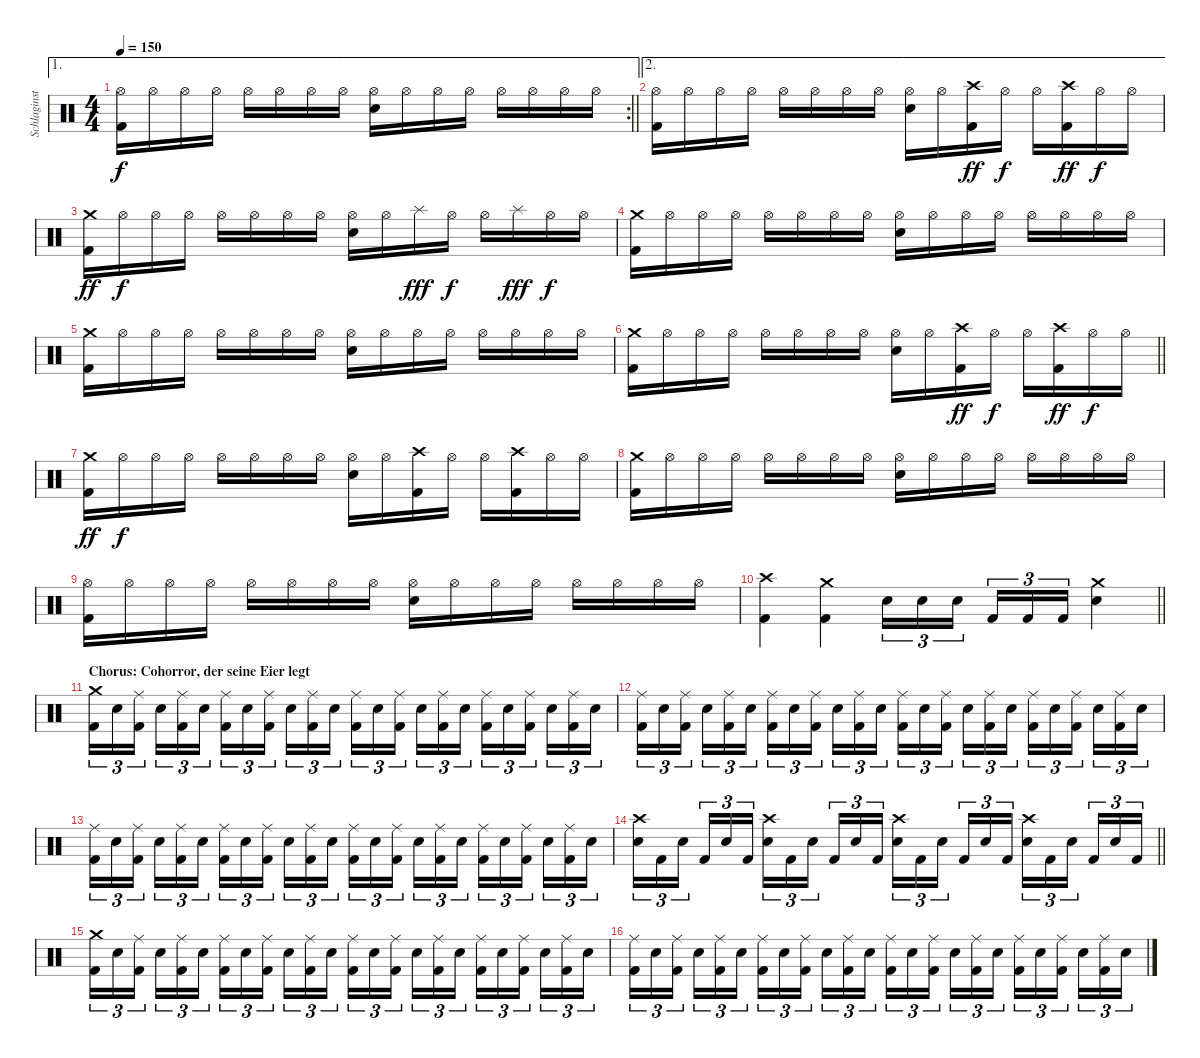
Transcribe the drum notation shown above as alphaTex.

\track ("Schlaginstrumente - Auswahl" "Schlaginst") {instrument percussion}
\staff {score}
\articulation defaults
\ae 1
\rc 2
\ts (4 4)
\tempo 150
\clef neutral
\barLineRight lightlight
\ks c
("Hi-Hat (open)" "Kick (hit) 2").16{dy f} "Hi-Hat (open)".16 "Hi-Hat (open)".16 "Hi-Hat (open)".16 "Hi-Hat (open)".16 "Hi-Hat (open)".16 "Hi-Hat (open)".16 "Hi-Hat (open)".16 ("Hi-Hat (open)" "Electric Snare (hit)").16 "Hi-Hat (open)".16 "Hi-Hat (open)".16 "Hi-Hat (open)".16 "Hi-Hat (open)".16 "Hi-Hat (open)".16 "Hi-Hat (open)".16 "Hi-Hat (open)".16 |
\ae 2
("Hi-Hat (open)" "Kick (hit) 2").16 "Hi-Hat (open)".16 "Hi-Hat (open)".16 "Hi-Hat (open)".16 "Hi-Hat (open)".16 "Hi-Hat (open)".16 "Hi-Hat (open)".16 "Hi-Hat (open)".16 ("Hi-Hat (open)" "Electric Snare (hit)").16 "Hi-Hat (open)".16 ("Crash high (hit)" "Kick (hit) 2").16{dy ff} "Hi-Hat (open)".16{dy f} "Hi-Hat (open)".16 ("Crash high (hit)" "Kick (hit) 2").16{dy ff} "Hi-Hat (open)".16{dy f} "Hi-Hat (open)".16 |
("Crash medium (hit)" "Kick (hit) 2").16{dy ff} "Hi-Hat (open)".16{dy f} "Hi-Hat (open)".16 "Hi-Hat (open)".16 "Hi-Hat (open)".16 "Hi-Hat (open)".16 "Hi-Hat (open)".16 "Hi-Hat (open)".16 ("Hi-Hat (open)" "Electric Snare (hit)").16 "Hi-Hat (open)".16 "Splash (hit)".16{dy fff} "Hi-Hat (open)".16{dy f} "Hi-Hat (open)".16 "Splash (hit)".16{dy fff} "Hi-Hat (open)".16{dy f} "Hi-Hat (open)".16 |
("Crash medium (hit)" "Kick (hit) 2").16 "Hi-Hat (open)".16 "Hi-Hat (open)".16 "Hi-Hat (open)".16 "Hi-Hat (open)".16 "Hi-Hat (open)".16 "Hi-Hat (open)".16 "Hi-Hat (open)".16 ("Hi-Hat (open)" "Electric Snare (hit)").16 "Hi-Hat (open)".16 "Hi-Hat (open)".16 "Hi-Hat (open)".16 "Hi-Hat (open)".16 "Hi-Hat (open)".16 "Hi-Hat (open)".16 "Hi-Hat (open)".16 |
("Crash medium (hit)" "Kick (hit) 2").16 "Hi-Hat (open)".16 "Hi-Hat (open)".16 "Hi-Hat (open)".16 "Hi-Hat (open)".16 "Hi-Hat (open)".16 "Hi-Hat (open)".16 "Hi-Hat (open)".16 ("Hi-Hat (open)" "Electric Snare (hit)").16 "Hi-Hat (open)".16 "Hi-Hat (open)".16 "Hi-Hat (open)".16 "Hi-Hat (open)".16 "Hi-Hat (open)".16 "Hi-Hat (open)".16 "Hi-Hat (open)".16 |
\barLineRight lightlight
("Crash medium (hit)" "Kick (hit) 2").16 "Hi-Hat (open)".16 "Hi-Hat (open)".16 "Hi-Hat (open)".16 "Hi-Hat (open)".16 "Hi-Hat (open)".16 "Hi-Hat (open)".16 "Hi-Hat (open)".16 ("Hi-Hat (open)" "Electric Snare (hit)").16 "Hi-Hat (open)".16 ("Crash high (hit)" "Kick (hit) 2").16{dy ff} "Hi-Hat (open)".16{dy f} "Hi-Hat (open)".16 ("Crash high (hit)" "Kick (hit) 2").16{dy ff} "Hi-Hat (open)".16{dy f} "Hi-Hat (open)".16 |
("Crash medium (hit)" "Kick (hit) 2").16{dy ff} "Hi-Hat (open)".16{dy f} "Hi-Hat (open)".16 "Hi-Hat (open)".16 "Hi-Hat (open)".16 "Hi-Hat (open)".16 "Hi-Hat (open)".16 "Hi-Hat (open)".16 ("Hi-Hat (open)" "Electric Snare (hit)").16 "Hi-Hat (open)".16 ("Crash high (hit)" "Kick (hit) 2").16 "Hi-Hat (open)".16 "Hi-Hat (open)".16 ("Crash high (hit)" "Kick (hit) 2").16 "Hi-Hat (open)".16 "Hi-Hat (open)".16 |
("Crash medium (hit)" "Kick (hit) 2").16 "Hi-Hat (open)".16 "Hi-Hat (open)".16 "Hi-Hat (open)".16 "Hi-Hat (open)".16 "Hi-Hat (open)".16 "Hi-Hat (open)".16 "Hi-Hat (open)".16 ("Hi-Hat (open)" "Electric Snare (hit)").16 "Hi-Hat (open)".16 "Hi-Hat (open)".16 "Hi-Hat (open)".16 "Hi-Hat (open)".16 "Hi-Hat (open)".16 "Hi-Hat (open)".16 "Hi-Hat (open)".16 |
("Hi-Hat (open)" "Kick (hit) 2").16 "Hi-Hat (open)".16 "Hi-Hat (open)".16 "Hi-Hat (open)".16 "Hi-Hat (open)".16 "Hi-Hat (open)".16 "Hi-Hat (open)".16 "Hi-Hat (open)".16 ("Hi-Hat (open)" "Electric Snare (hit)").16 "Hi-Hat (open)".16 "Hi-Hat (open)".16 "Hi-Hat (open)".16 "Hi-Hat (open)".16 "Hi-Hat (open)".16 "Hi-Hat (open)".16 "Hi-Hat (open)".16 |
\barLineRight lightlight
("Crash high (hit)" "Kick (hit) 2").4 ("Crash medium (hit)" "Kick (hit) 2").4 "Electric Snare (hit)".16{tu (3 2)} "Electric Snare (hit)".16{tu (3 2)} "Electric Snare (hit)".16{tu (3 2) beam splitsecondary} "Kick (hit) 2".16{tu (3 2)} "Kick (hit) 2".16{tu (3 2)} "Kick (hit) 2".16{tu (3 2)} ("Crash medium (hit)" "Electric Snare (hit)").4 |
\section ("" "Chorus: Cohorror, der seine Eier legt")
("Crash medium (hit)" "Kick (hit) 2").16{tu (3 2)} "Electric Snare (hit)".16{tu (3 2)} ("Ride (middle)" "Kick (hit) 2").16{tu (3 2) beam splitsecondary} "Electric Snare (hit)".16{tu (3 2)} ("Ride (middle)" "Kick (hit) 2").16{tu (3 2)} "Electric Snare (hit)".16{tu (3 2)} ("Ride (middle)" "Kick (hit) 2").16{tu (3 2)} "Electric Snare (hit)".16{tu (3 2)} ("Ride (middle)" "Kick (hit) 2").16{tu (3 2) beam splitsecondary} "Electric Snare (hit)".16{tu (3 2)} ("Ride (middle)" "Kick (hit) 2").16{tu (3 2)} "Electric Snare (hit)".16{tu (3 2)} ("Ride (middle)" "Kick (hit) 2").16{tu (3 2)} "Electric Snare (hit)".16{tu (3 2)} ("Ride (middle)" "Kick (hit) 2").16{tu (3 2) beam splitsecondary} "Electric Snare (hit)".16{tu (3 2)} ("Ride (middle)" "Kick (hit) 2").16{tu (3 2)} "Electric Snare (hit)".16{tu (3 2)} ("Ride (middle)" "Kick (hit) 2").16{tu (3 2)} "Electric Snare (hit)".16{tu (3 2)} ("Ride (middle)" "Kick (hit) 2").16{tu (3 2) beam splitsecondary} "Electric Snare (hit)".16{tu (3 2)} ("Ride (middle)" "Kick (hit) 2").16{tu (3 2)} "Electric Snare (hit)".16{tu (3 2)} |
("Ride (middle)" "Kick (hit) 2").16{tu (3 2)} "Electric Snare (hit)".16{tu (3 2)} ("Ride (middle)" "Kick (hit) 2").16{tu (3 2) beam splitsecondary} "Electric Snare (hit)".16{tu (3 2)} ("Ride (middle)" "Kick (hit) 2").16{tu (3 2)} "Electric Snare (hit)".16{tu (3 2)} ("Ride (middle)" "Kick (hit) 2").16{tu (3 2)} "Electric Snare (hit)".16{tu (3 2)} ("Ride (middle)" "Kick (hit) 2").16{tu (3 2) beam splitsecondary} "Electric Snare (hit)".16{tu (3 2)} ("Ride (middle)" "Kick (hit) 2").16{tu (3 2)} "Electric Snare (hit)".16{tu (3 2)} ("Ride (middle)" "Kick (hit) 2").16{tu (3 2)} "Electric Snare (hit)".16{tu (3 2)} ("Ride (middle)" "Kick (hit) 2").16{tu (3 2) beam splitsecondary} "Electric Snare (hit)".16{tu (3 2)} ("Ride (middle)" "Kick (hit) 2").16{tu (3 2)} "Electric Snare (hit)".16{tu (3 2)} ("Ride (middle)" "Kick (hit) 2").16{tu (3 2)} "Electric Snare (hit)".16{tu (3 2)} ("Ride (middle)" "Kick (hit) 2").16{tu (3 2) beam splitsecondary} "Electric Snare (hit)".16{tu (3 2)} ("Ride (middle)" "Kick (hit) 2").16{tu (3 2)} "Electric Snare (hit)".16{tu (3 2)} |
("Ride (middle)" "Kick (hit) 2").16{tu (3 2)} "Electric Snare (hit)".16{tu (3 2)} ("Ride (middle)" "Kick (hit) 2").16{tu (3 2) beam splitsecondary} "Electric Snare (hit)".16{tu (3 2)} ("Ride (middle)" "Kick (hit) 2").16{tu (3 2)} "Electric Snare (hit)".16{tu (3 2)} ("Ride (middle)" "Kick (hit) 2").16{tu (3 2)} "Electric Snare (hit)".16{tu (3 2)} ("Ride (middle)" "Kick (hit) 2").16{tu (3 2) beam splitsecondary} "Electric Snare (hit)".16{tu (3 2)} ("Ride (middle)" "Kick (hit) 2").16{tu (3 2)} "Electric Snare (hit)".16{tu (3 2)} ("Ride (middle)" "Kick (hit) 2").16{tu (3 2)} "Electric Snare (hit)".16{tu (3 2)} ("Ride (middle)" "Kick (hit) 2").16{tu (3 2) beam splitsecondary} "Electric Snare (hit)".16{tu (3 2)} ("Ride (middle)" "Kick (hit) 2").16{tu (3 2)} "Electric Snare (hit)".16{tu (3 2)} ("Ride (middle)" "Kick (hit) 2").16{tu (3 2)} "Electric Snare (hit)".16{tu (3 2)} ("Ride (middle)" "Kick (hit) 2").16{tu (3 2) beam splitsecondary} "Electric Snare (hit)".16{tu (3 2)} ("Ride (middle)" "Kick (hit) 2").16{tu (3 2)} "Electric Snare (hit)".16{tu (3 2)} |
\barLineRight lightlight
("Crash high (hit)" "Electric Snare (hit)").16{tu (3 2)} "Kick (hit) 2".16{tu (3 2)} "Electric Snare (hit)".16{tu (3 2) beam splitsecondary} "Kick (hit) 2".16{tu (3 2)} "Electric Snare (hit)".16{tu (3 2)} "Kick (hit) 2".16{tu (3 2)} ("Crash high (hit)" "Electric Snare (hit)").16{tu (3 2)} "Kick (hit) 2".16{tu (3 2)} "Electric Snare (hit)".16{tu (3 2) beam splitsecondary} "Kick (hit) 2".16{tu (3 2)} "Electric Snare (hit)".16{tu (3 2)} "Kick (hit) 2".16{tu (3 2)} ("Crash high (hit)" "Electric Snare (hit)").16{tu (3 2)} "Kick (hit) 2".16{tu (3 2)} "Electric Snare (hit)".16{tu (3 2) beam splitsecondary} "Kick (hit) 2".16{tu (3 2)} "Electric Snare (hit)".16{tu (3 2)} "Kick (hit) 2".16{tu (3 2)} ("Crash high (hit)" "Electric Snare (hit)").16{tu (3 2)} "Kick (hit) 2".16{tu (3 2)} "Electric Snare (hit)".16{tu (3 2) beam splitsecondary} "Kick (hit) 2".16{tu (3 2)} "Electric Snare (hit)".16{tu (3 2)} "Kick (hit) 2".16{tu (3 2)} |
("Crash medium (hit)" "Kick (hit) 2").16{tu (3 2)} "Electric Snare (hit)".16{tu (3 2)} ("Ride (middle)" "Kick (hit) 2").16{tu (3 2) beam splitsecondary} "Electric Snare (hit)".16{tu (3 2)} ("Ride (middle)" "Kick (hit) 2").16{tu (3 2)} "Electric Snare (hit)".16{tu (3 2)} ("Ride (middle)" "Kick (hit) 2").16{tu (3 2)} "Electric Snare (hit)".16{tu (3 2)} ("Ride (middle)" "Kick (hit) 2").16{tu (3 2) beam splitsecondary} "Electric Snare (hit)".16{tu (3 2)} ("Ride (middle)" "Kick (hit) 2").16{tu (3 2)} "Electric Snare (hit)".16{tu (3 2)} ("Ride (middle)" "Kick (hit) 2").16{tu (3 2)} "Electric Snare (hit)".16{tu (3 2)} ("Ride (middle)" "Kick (hit) 2").16{tu (3 2) beam splitsecondary} "Electric Snare (hit)".16{tu (3 2)} ("Ride (middle)" "Kick (hit) 2").16{tu (3 2)} "Electric Snare (hit)".16{tu (3 2)} ("Ride (middle)" "Kick (hit) 2").16{tu (3 2)} "Electric Snare (hit)".16{tu (3 2)} ("Ride (middle)" "Kick (hit) 2").16{tu (3 2) beam splitsecondary} "Electric Snare (hit)".16{tu (3 2)} ("Ride (middle)" "Kick (hit) 2").16{tu (3 2)} "Electric Snare (hit)".16{tu (3 2)} |
("Ride (middle)" "Kick (hit) 2").16{tu (3 2)} "Electric Snare (hit)".16{tu (3 2)} ("Ride (middle)" "Kick (hit) 2").16{tu (3 2) beam splitsecondary} "Electric Snare (hit)".16{tu (3 2)} ("Ride (middle)" "Kick (hit) 2").16{tu (3 2)} "Electric Snare (hit)".16{tu (3 2)} ("Ride (middle)" "Kick (hit) 2").16{tu (3 2)} "Electric Snare (hit)".16{tu (3 2)} ("Ride (middle)" "Kick (hit) 2").16{tu (3 2) beam splitsecondary} "Electric Snare (hit)".16{tu (3 2)} ("Ride (middle)" "Kick (hit) 2").16{tu (3 2)} "Electric Snare (hit)".16{tu (3 2)} ("Ride (middle)" "Kick (hit) 2").16{tu (3 2)} "Electric Snare (hit)".16{tu (3 2)} ("Ride (middle)" "Kick (hit) 2").16{tu (3 2) beam splitsecondary} "Electric Snare (hit)".16{tu (3 2)} ("Ride (middle)" "Kick (hit) 2").16{tu (3 2)} "Electric Snare (hit)".16{tu (3 2)} ("Ride (middle)" "Kick (hit) 2").16{tu (3 2)} "Electric Snare (hit)".16{tu (3 2)} ("Ride (middle)" "Kick (hit) 2").16{tu (3 2) beam splitsecondary} "Electric Snare (hit)".16{tu (3 2)} ("Ride (middle)" "Kick (hit) 2").16{tu (3 2)} "Electric Snare (hit)".16{tu (3 2)}
